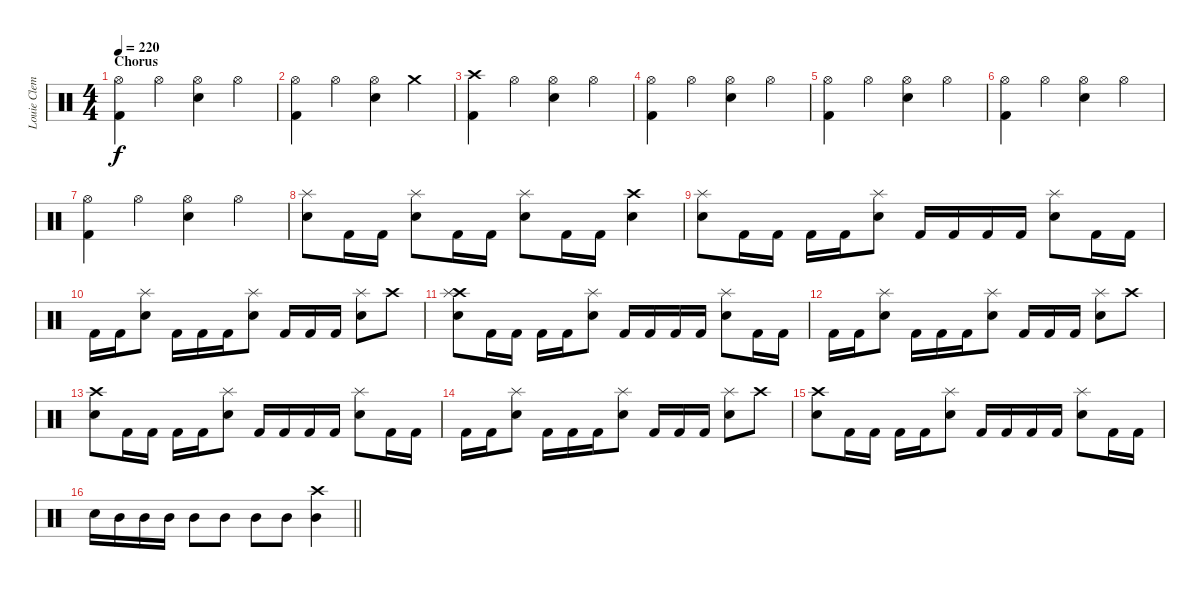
\track ("Louie Clemente (Drums)" "Louie Clem") {instrument percussion}
\staff {score}
\articulation defaults
\ts (4 4)
\section ("" "Chorus")
\tempo 220
\clef neutral
\ks c
("Hi-Hat (open)" "Kick (hit) 2").4{dy f} "Hi-Hat (open)".4 ("Hi-Hat (open)" "Electric Snare (hit)").4 "Hi-Hat (open)".4 |
("Hi-Hat (open)" "Kick (hit) 2").4 "Hi-Hat (open)".4 ("Hi-Hat (open)" "Electric Snare (hit)").4 "Crash medium (hit)".4 |
("Crash high (hit)" "Kick (hit) 2").4 "Hi-Hat (open)".4 ("Hi-Hat (open)" "Electric Snare (hit)").4 "Hi-Hat (open)".4 |
("Hi-Hat (open)" "Kick (hit) 2").4 "Hi-Hat (open)".4 ("Hi-Hat (open)" "Electric Snare (hit)").4 "Hi-Hat (open)".4 |
("Hi-Hat (open)" "Kick (hit) 2").4 "Hi-Hat (open)".4 ("Hi-Hat (open)" "Electric Snare (hit)").4 "Hi-Hat (open)".4 |
("Hi-Hat (open)" "Kick (hit) 2").4 "Hi-Hat (open)".4 ("Hi-Hat (open)" "Electric Snare (hit)").4 "Hi-Hat (open)".4 |
("Hi-Hat (open)" "Kick (hit) 2").4 "Hi-Hat (open)".4 ("Hi-Hat (open)" "Electric Snare (hit)").4 "Hi-Hat (open)".4 |
("Splash (hit)" "Electric Snare (hit)").8 "Kick (hit) 2".16 "Kick (hit) 2".16 ("Splash (hit)" "Electric Snare (hit)").8 "Kick (hit) 2".16 "Kick (hit) 2".16 ("Splash (hit)" "Electric Snare (hit)").8 "Kick (hit) 2".16 "Kick (hit) 2".16 ("Crash high (hit)" "Electric Snare (hit)").4 |
("Splash (hit)" "Electric Snare (hit)").8 "Kick (hit) 2".16 "Kick (hit) 2".16 "Kick (hit) 2".16 "Kick (hit) 2".16 ("Splash (hit)" "Electric Snare (hit)").8 "Kick (hit) 2".16 "Kick (hit) 2".16 "Kick (hit) 2".16 "Kick (hit) 2".16 ("Splash (hit)" "Electric Snare (hit)").8 "Kick (hit) 2".16 "Kick (hit) 2".16 |
"Kick (hit) 2".16 "Kick (hit) 2".16 ("Splash (hit)" "Electric Snare (hit)").8 "Kick (hit) 2".16 "Kick (hit) 2".16 "Kick (hit) 2".16 ("Splash (hit)" "Electric Snare (hit)").8 "Kick (hit) 2".16 "Kick (hit) 2".16 "Kick (hit) 2".16 ("Splash (hit)" "Electric Snare (hit)").8 "Crash high (hit)".8 |
("Crash high (hit)" "Splash (hit)" "Electric Snare (hit)").8 "Kick (hit) 2".16 "Kick (hit) 2".16 "Kick (hit) 2".16 "Kick (hit) 2".16 ("Splash (hit)" "Electric Snare (hit)").8 "Kick (hit) 2".16 "Kick (hit) 2".16 "Kick (hit) 2".16 "Kick (hit) 2".16 ("Splash (hit)" "Electric Snare (hit)").8 "Kick (hit) 2".16 "Kick (hit) 2".16 |
"Kick (hit) 2".16 "Kick (hit) 2".16 ("Splash (hit)" "Electric Snare (hit)").8 "Kick (hit) 2".16 "Kick (hit) 2".16 "Kick (hit) 2".16 ("Splash (hit)" "Electric Snare (hit)").8 "Kick (hit) 2".16 "Kick (hit) 2".16 "Kick (hit) 2".16 ("Splash (hit)" "Electric Snare (hit)").8 "Crash high (hit)".8 |
("Crash high (hit)" "Electric Snare (hit)").8 "Kick (hit) 2".16 "Kick (hit) 2".16 "Kick (hit) 2".16 "Kick (hit) 2".16 ("Splash (hit)" "Electric Snare (hit)").8 "Kick (hit) 2".16 "Kick (hit) 2".16 "Kick (hit) 2".16 "Kick (hit) 2".16 ("Splash (hit)" "Electric Snare (hit)").8 "Kick (hit) 2".16 "Kick (hit) 2".16 |
"Kick (hit) 2".16 "Kick (hit) 2".16 ("Splash (hit)" "Electric Snare (hit)").8 "Kick (hit) 2".16 "Kick (hit) 2".16 "Kick (hit) 2".16 ("Splash (hit)" "Electric Snare (hit)").8 "Kick (hit) 2".16 "Kick (hit) 2".16 "Kick (hit) 2".16 ("Splash (hit)" "Electric Snare (hit)").8 "Crash high (hit)".8 |
("Crash high (hit)" "Electric Snare (hit)").8 "Kick (hit) 2".16 "Kick (hit) 2".16 "Kick (hit) 2".16 "Kick (hit) 2".16 ("Splash (hit)" "Electric Snare (hit)").8 "Kick (hit) 2".16 "Kick (hit) 2".16 "Kick (hit) 2".16 "Kick (hit) 2".16 ("Splash (hit)" "Electric Snare (hit)").8 "Kick (hit) 2".16 "Kick (hit) 2".16 |
\barLineRight lightlight "Electric Snare (hit)".16 "Mid Tom (hit)".16 "Mid Tom (hit)".16 "Mid Tom (hit)".16 "Mid Tom (hit)".8 "Mid Tom (hit)".8 "Mid Tom (hit)".8 "Mid Tom (hit)".8
("Crash high (hit)" "Mid Tom (hit)").4
